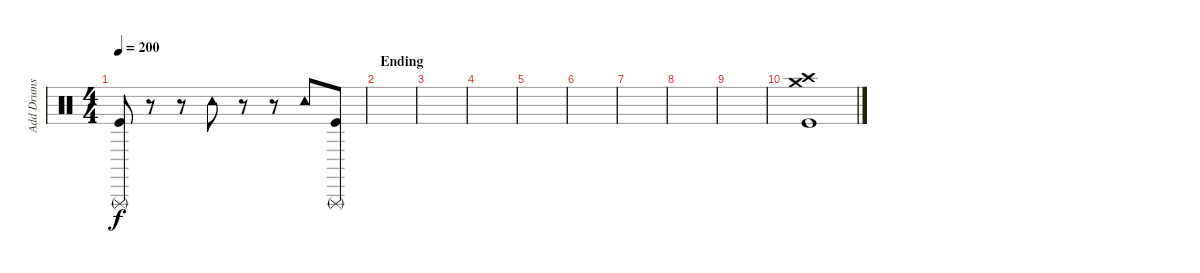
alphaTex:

\track ("Add Drums" "Add Drums") {instrument percussion}
\staff {score}
\articulation defaults
\ts (4 4)
\tempo 200
\clef neutral
\ks c
("Triangle (rnute)" "Kick (hit)").8{dy f} r.8 r.8 "Tambourine (hit)".8 r.8 r.8 "Tambourine (hit)".8 ("Triangle (rnute)" "Kick (hit)").8 |
\section ("" "Ending")
|
|
|
|
|
|
|
|
("Crash high (hit)" "Crash medium (hit)" "Kick (hit)").1
